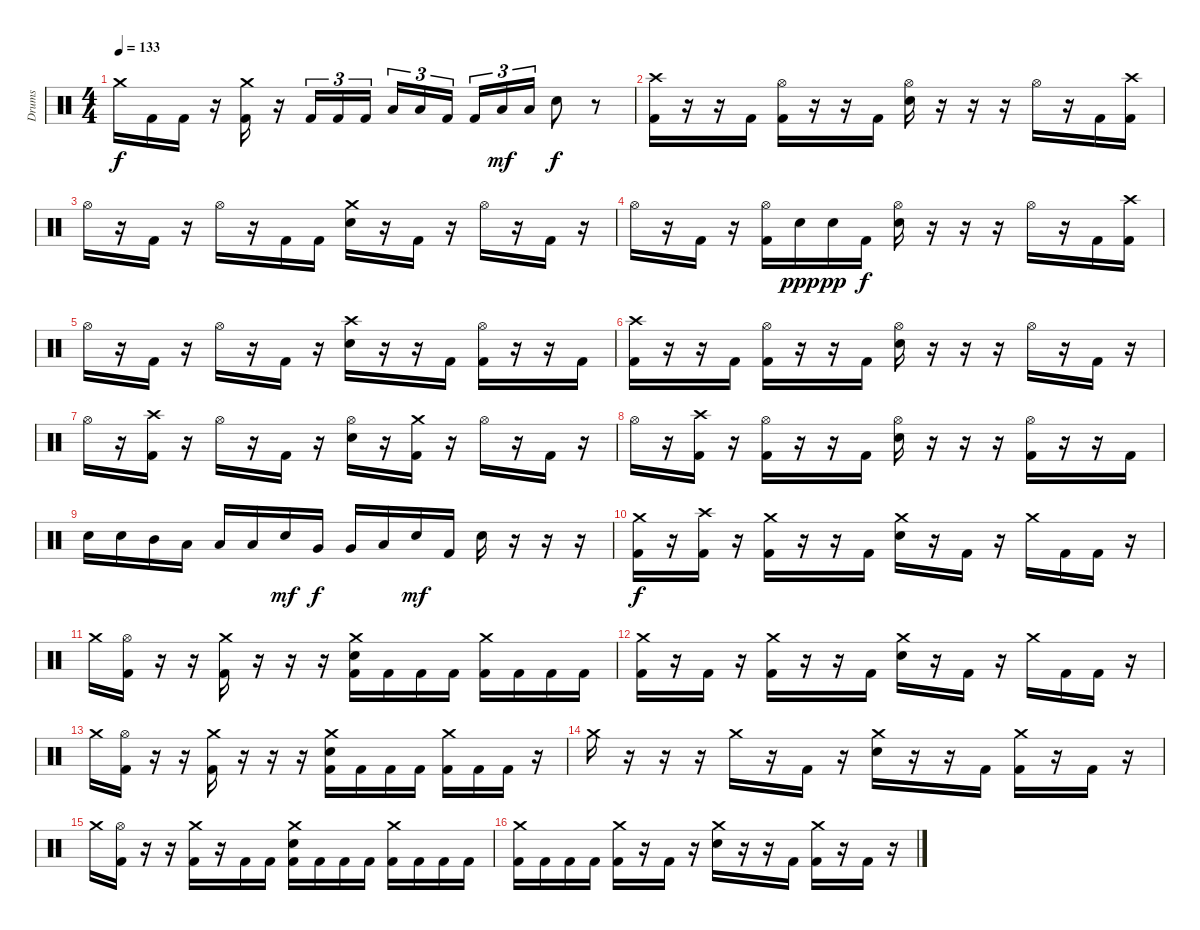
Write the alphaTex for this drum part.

\track ("Drums" "Drums") {instrument percussion}
\staff {score}
\articulation defaults
\ts (4 4)
\tempo 133
\clef neutral
\ks c "Crash medium (hit)".16{dy f} "Kick (hit) 2".16 "Kick (hit) 2".16
r.16 ("Crash medium (hit)" "Kick (hit) 2").16 r.16 "Kick (hit) 2".16{tu (3 2)} "Kick (hit) 2".16{tu (3 2)} "Kick (hit) 2".16{tu (3 2)} "Low Floor Tom (hit)".16{tu (3 2)} "Low Floor Tom (hit)".16{tu (3 2)} "Kick (hit) 2".16{tu (3 2) beam splitsecondary} "Kick (hit) 2".16{tu (3 2)} "Low Floor Tom (hit)".16{tu (3 2) dy mf} "Low Floor Tom (hit)".16{tu (3 2)} "Snare (hit) 2".8{dy f} r.8 |
("Crash high (hit)" "Kick (hit) 2").16 r.16 r.16 "Kick (hit) 2".16 ("Hi-Hat (open)" "Kick (hit) 2").16 r.16 r.16 "Kick (hit) 2".16 ("Hi-Hat (open)" "Snare (hit) 2").16 r.16 r.16 r.16 "Hi-Hat (open)".16 r.16 "Kick (hit) 2".16 ("Crash high (hit)" "Kick (hit) 2").16 |
"Hi-Hat (open)".16 r.16 "Kick (hit) 2".16 r.16 "Hi-Hat (open)".16 r.16 "Kick (hit) 2".16 "Kick (hit) 2".16 ("Crash medium (hit)" "Snare (hit) 2").16 r.16 "Kick (hit) 2".16 r.16 "Hi-Hat (open)".16 r.16 "Kick (hit) 2".16 r.16 |
"Hi-Hat (open)".16 r.16 "Kick (hit) 2".16 r.16 ("Hi-Hat (open)" "Kick (hit) 2").16 "Snare (hit) 2".16{dy ppp} "Snare (hit) 2".16{dy pp} "Kick (hit) 2".16{dy f} ("Hi-Hat (open)" "Snare (hit) 2").16 r.16 r.16 r.16 "Hi-Hat (open)".16 r.16 "Kick (hit) 2".16 ("Crash high (hit)" "Kick (hit) 2").16 |
"Hi-Hat (open)".16 r.16 "Kick (hit) 2".16 r.16 "Hi-Hat (open)".16 r.16 "Kick (hit) 2".16 r.16 ("Crash high (hit)" "Snare (hit) 2").16 r.16 r.16 "Kick (hit) 2".16 ("Hi-Hat (open)" "Kick (hit) 2").16 r.16 r.16 "Kick (hit) 2".16 |
("Crash high (hit)" "Kick (hit) 2").16 r.16 r.16 "Kick (hit) 2".16 ("Hi-Hat (open)" "Kick (hit) 2").16 r.16 r.16 "Kick (hit) 2".16 ("Hi-Hat (open)" "Snare (hit) 2").16 r.16 r.16 r.16 "Hi-Hat (open)".16 r.16 "Kick (hit) 2".16 r.16 |
"Hi-Hat (open)".16 r.16 ("Crash high (hit)" "Kick (hit) 2").16 r.16 "Hi-Hat (open)".16 r.16 "Kick (hit) 2".16 r.16 ("Hi-Hat (open)" "Snare (hit) 2").16 r.16 ("Crash medium (hit)" "Kick (hit) 2").16 r.16 "Hi-Hat (open)".16 r.16 "Kick (hit) 2".16 r.16 |
"Hi-Hat (open)".16 r.16 ("Crash high (hit)" "Kick (hit) 2").16 r.16 ("Hi-Hat (open)" "Kick (hit) 2").16 r.16 r.16 "Kick (hit) 2".16 ("Hi-Hat (open)" "Snare (hit) 2").16 r.16 r.16 r.16 ("Hi-Hat (open)" "Kick (hit) 2").16 r.16 r.16 "Kick (hit) 2".16 |
"Snare (hit) 2".16 "Snare (hit) 2".16 "Mid Tom (hit)".16 "Low Tom (hit)".16 "Low Tom (hit)".16 "Low Tom (hit)".16 "Snare (hit) 2".16{dy mf} "Very Low Tom (hit)".16{dy f} "Very Low Tom (hit)".16 "Low Floor Tom (hit)".16 "Snare (hit) 2".16{dy mf} "Kick (hit) 2".16 "Snare (hit) 2".16 r.16 r.16 r.16 |
("Crash medium (hit)" "Kick (hit) 2").16{dy f} r.16 ("Crash high (hit)" "Kick (hit) 2").16 r.16 ("Crash medium (hit)" "Kick (hit) 2").16 r.16 r.16 "Kick (hit) 2".16 ("Crash medium (hit)" "Snare (hit) 2").16 r.16 "Kick (hit) 2".16 r.16 "Crash medium (hit)".16 "Kick (hit) 2".16 "Kick (hit) 2".16 r.16 |
"Crash medium (hit)".16 ("Hi-Hat (open)" "Kick (hit) 2").16 r.16 r.16 ("Crash medium (hit)" "Kick (hit) 2").16 r.16 r.16 r.16 ("Crash medium (hit)" "Snare (hit) 2" "Kick (hit) 2").16 "Kick (hit) 2".16 "Kick (hit) 2".16 "Kick (hit) 2".16 ("Crash medium (hit)" "Kick (hit) 2").16 "Kick (hit) 2".16 "Kick (hit) 2".16 "Kick (hit) 2".16 |
("Crash medium (hit)" "Kick (hit) 2").16 r.16 "Kick (hit) 2".16 r.16 ("Crash medium (hit)" "Kick (hit) 2").16 r.16 r.16 "Kick (hit) 2".16 ("Crash medium (hit)" "Snare (hit) 2").16 r.16 "Kick (hit) 2".16 r.16 "Crash medium (hit)".16 "Kick (hit) 2".16 "Kick (hit) 2".16 r.16 |
"Crash medium (hit)".16 ("Hi-Hat (open)" "Kick (hit) 2").16 r.16 r.16 ("Crash medium (hit)" "Kick (hit) 2").16 r.16 r.16 r.16 ("Crash medium (hit)" "Snare (hit) 2" "Kick (hit) 2").16 "Kick (hit) 2".16 "Kick (hit) 2".16 "Kick (hit) 2".16 ("Crash medium (hit)" "Kick (hit) 2").16 "Kick (hit) 2".16 "Kick (hit) 2".16 r.16 |
"Crash medium (hit)".16 r.16 r.16 r.16 "Crash medium (hit)".16 r.16 "Kick (hit) 2".16 r.16 ("Crash medium (hit)" "Snare (hit) 2").16 r.16 r.16 "Kick (hit) 2".16 ("Crash medium (hit)" "Kick (hit) 2").16 r.16 "Kick (hit) 2".16 r.16 |
"Crash medium (hit)".16 ("Hi-Hat (open)" "Kick (hit) 2").16 r.16 r.16 ("Crash medium (hit)" "Kick (hit) 2").16 r.16 "Kick (hit) 2".16 "Kick (hit) 2".16 ("Crash medium (hit)" "Snare (hit) 2" "Kick (hit) 2").16 "Kick (hit) 2".16 "Kick (hit) 2".16 "Kick (hit) 2".16 ("Crash medium (hit)" "Kick (hit) 2").16 "Kick (hit) 2".16 "Kick (hit) 2".16 "Kick (hit) 2".16 |
("Crash medium (hit)" "Kick (hit) 2").16 "Kick (hit) 2".16 "Kick (hit) 2".16 "Kick (hit) 2".16 ("Crash medium (hit)" "Kick (hit) 2").16 r.16 "Kick (hit) 2".16 r.16 ("Crash medium (hit)" "Snare (hit) 2").16 r.16 r.16 "Kick (hit) 2".16 ("Crash medium (hit)" "Kick (hit) 2").16 r.16 "Kick (hit) 2".16 r.16
